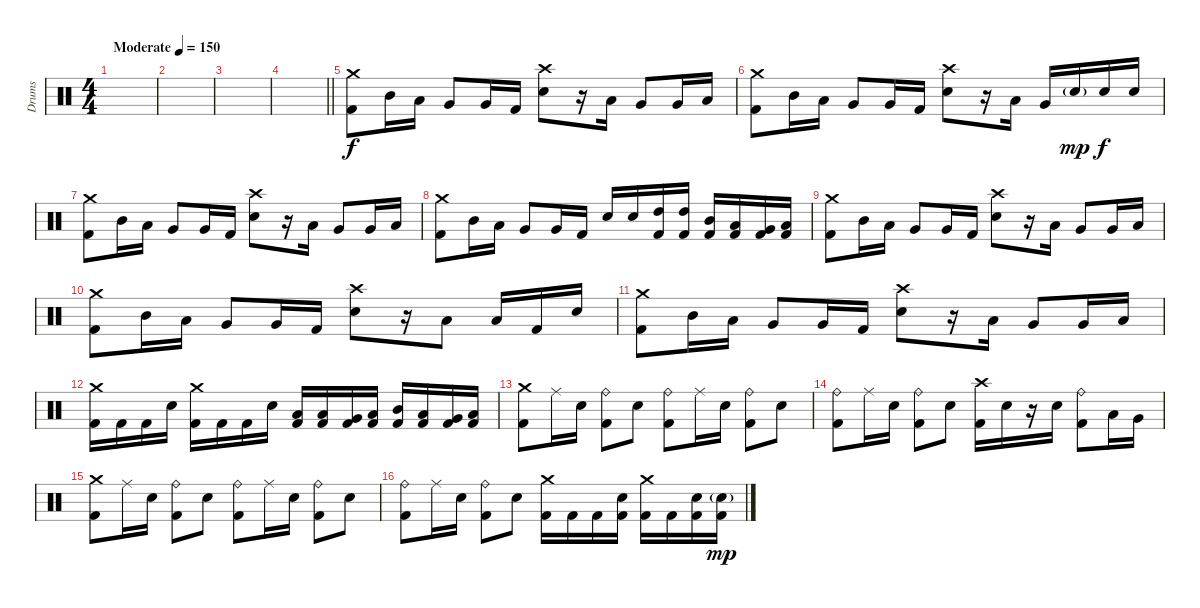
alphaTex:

\track ("Drums" "Drums") {instrument percussion}
\staff {score}
\articulation defaults
\ts (4 4)
\tempo (150 "Moderate")
\clef neutral
\ks c
|
|
|
\barLineRight lightlight
|
("Crash medium (hit)" "Kick (hit) 2").8 "Mid Tom (hit)".16 "Low Tom (hit)".16 "Very Low Tom (hit)".8 "Very Low Tom (hit)".16 "Kick (hit) 2".16 ("Crash high (hit)" "Electric Snare (hit)").8 r.16 "Low Tom (hit)".16 "Very Low Tom (hit)".8 "Very Low Tom (hit)".16 "Low Floor Tom (hit)".16 |
("Crash medium (hit)" "Kick (hit) 2").8 "Mid Tom (hit)".16 "Low Tom (hit)".16 "Very Low Tom (hit)".8 "Very Low Tom (hit)".16 "Kick (hit) 2".16 ("Crash high (hit)" "Electric Snare (hit)").8 r.16 "Low Tom (hit)".16 "Very Low Tom (hit)".16 "Electric Snare (hit)"{g}.16{dy mp} "Electric Snare (hit)".16{dy f} "Electric Snare (hit)".16 |
("Crash medium (hit)" "Kick (hit) 2").8 "Mid Tom (hit)".16 "Low Tom (hit)".16 "Very Low Tom (hit)".8 "Very Low Tom (hit)".16 "Kick (hit) 2".16 ("Crash high (hit)" "Electric Snare (hit)").8 r.16 "Low Tom (hit)".16 "Very Low Tom (hit)".8 "Very Low Tom (hit)".16 "Low Floor Tom (hit)".16 |
("Crash medium (hit)" "Kick (hit) 2").8 "Mid Tom (hit)".16 "Low Tom (hit)".16 "Very Low Tom (hit)".8 "Very Low Tom (hit)".16 "Kick (hit) 2".16 "Electric Snare (hit)".16 "Electric Snare (hit)".16 ("High Tom (hit)" "Kick (hit) 2").16 ("High Tom (hit)" "Kick (hit) 2").16 ("Mid Tom (hit)" "Kick (hit) 2").16 ("Low Tom (hit)" "Kick (hit) 2").16 ("Very Low Tom (hit)" "Kick (hit) 2").16 ("Low Floor Tom (hit)" "Kick (hit) 2").16 |
("Crash medium (hit)" "Kick (hit) 2").8 "Mid Tom (hit)".16 "Low Tom (hit)".16 "Very Low Tom (hit)".8 "Very Low Tom (hit)".16 "Kick (hit) 2".16 ("Crash high (hit)" "Electric Snare (hit)").8 r.16 "Low Tom (hit)".16 "Very Low Tom (hit)".8 "Very Low Tom (hit)".16 "Low Floor Tom (hit)".16 |
("Crash medium (hit)" "Kick (hit) 2").8 "Mid Tom (hit)".16 "Low Tom (hit)".16 "Very Low Tom (hit)".8 "Very Low Tom (hit)".16 "Kick (hit) 2".16 ("Crash high (hit)" "Electric Snare (hit)").8 r.16 "Low Tom (hit)".8 "Low Tom (hit)".16 "Kick (hit) 2".16 "Electric Snare (hit)".16 |
("Crash medium (hit)" "Kick (hit) 2").8 "Mid Tom (hit)".16 "Low Tom (hit)".16 "Very Low Tom (hit)".8 "Very Low Tom (hit)".16 "Kick (hit) 2".16 ("Crash high (hit)" "Electric Snare (hit)").8 r.16 "Low Tom (hit)".16 "Very Low Tom (hit)".8 "Very Low Tom (hit)".16 "Low Floor Tom (hit)".16 |
("Crash medium (hit)" "Kick (hit) 2").16 "Kick (hit) 2".16 "Kick (hit) 2".16 "Electric Snare (hit)".16 ("Crash medium (hit)" "Kick (hit) 2").16 "Kick (hit) 2".16 "Kick (hit) 2".16 "Electric Snare (hit)".16 ("Low Floor Tom (hit)" "Kick (hit) 2").16 ("Low Floor Tom (hit)" "Kick (hit) 2").16 ("Very Low Tom (hit)" "Kick (hit) 2").16 ("Low Tom (hit)" "Kick (hit) 2").16 ("Mid Tom (hit)" "Kick (hit) 2").16 ("Low Tom (hit)" "Kick (hit) 2").16 ("Very Low Tom (hit)" "Kick (hit) 2").16 ("Low Floor Tom (hit)" "Kick (hit) 2").16 |
("Crash medium (hit)" "Kick (hit) 2").8 "Ride (middle)".16 "Electric Snare (hit)".16 ("Ride (bell)" "Kick (hit) 2").8 "Electric Snare (hit)".8 ("Ride (bell)" "Kick (hit) 2").8 "Ride (middle)".16 "Electric Snare (hit)".16 ("Ride (bell)" "Kick (hit) 2").8 "Electric Snare (hit)".8 |
("Ride (bell)" "Kick (hit) 2").8 "Ride (middle)".16 "Electric Snare (hit)".16 ("Ride (bell)" "Kick (hit) 2").8 "Electric Snare (hit)".8 ("Crash high (hit)" "Kick (hit) 2").16 "Electric Snare (hit)".16 r.16 "Electric Snare (hit)".16 ("Ride (bell)" "Kick (hit) 2").8 "Low Tom (hit)".16 "Very Low Tom (hit)".16 |
("Crash medium (hit)" "Kick (hit) 2").8 "Ride (middle)".16 "Electric Snare (hit)".16 ("Ride (bell)" "Kick (hit) 2").8 "Electric Snare (hit)".8 ("Ride (bell)" "Kick (hit) 2").8 "Ride (middle)".16 "Electric Snare (hit)".16 ("Ride (bell)" "Kick (hit) 2").8 "Electric Snare (hit)".8 |
("Ride (bell)" "Kick (hit) 2").8 "Ride (middle)".16 "Electric Snare (hit)".16 ("Ride (bell)" "Kick (hit) 2").8 "Electric Snare (hit)".8 ("Crash medium (hit)" "Kick (hit) 2").16 "Kick (hit) 2".16 "Kick (hit) 2".16 ("Electric Snare (hit)" "Kick (hit) 2").16 ("Crash medium (hit)" "Kick (hit) 2").16 "Kick (hit) 2".16 ("Electric Snare (hit)" "Kick (hit) 2").16 ("Electric Snare (hit)"{g} "Kick (hit) 2").16{dy mp}
